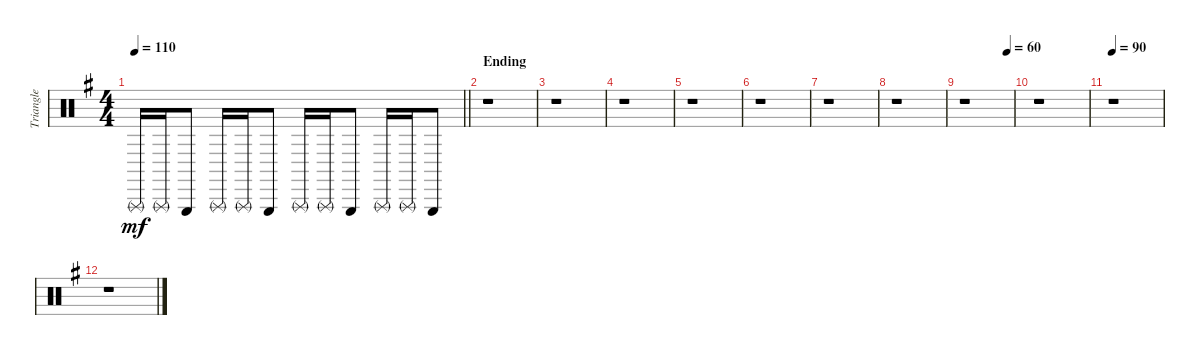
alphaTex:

\track ("Triangle" "Triangle") {instrument percussion}
\staff {score}
\articulation defaults
\ts (4 4)
\tempo 110
\clef neutral
\barLineRight lightlight
\ks g "Triangle (rnute)".16{dy mf} "Triangle (rnute)".16 "Triangle (hit)".8 "Triangle (rnute)".16 "Triangle (rnute)".16 "Triangle (hit)".8 "Triangle (rnute)".16 "Triangle (rnute)".16 "Triangle (hit)".8 "Triangle (rnute)".16 "Triangle (rnute)".16 "Triangle (hit)".8
|
\section ("" "Ending")
r.1 |
r.1 |
r.1 |
r.1 |
r.1 |
r.1 |
r.1 |
\tempo (60 0.875)
r.1 |
r.1 |
\tempo 90
r.1 |
r.1
